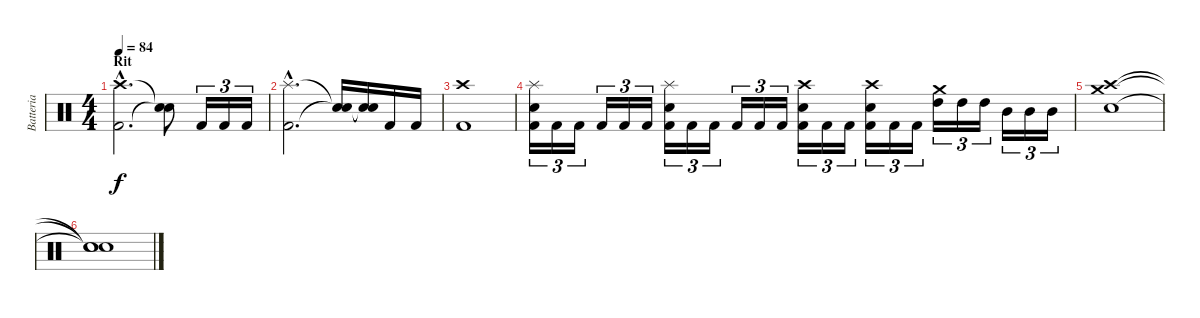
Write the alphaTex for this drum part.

\track ("Batteria" "Batteria") {instrument percussion}
\staff {score}
\articulation defaults
\ts (4 4)
\section ("" "Rit")
\tempo 84
\clef neutral
\ks c
("Crash high (hit)"{hac} "Kick (hit) 2"{hac}).2{d dy f} ("Snare (hit)"{t} "Snare (hit)"{t}).8 "Kick (hit) 2".16{tu (3 2)} "Kick (hit) 2".16{tu (3 2)} "Kick (hit) 2".16{tu (3 2)} |
("Splash (hit)"{hac} "Kick (hit) 2"{hac}).2{d} ("Snare (hit)"{t} "Snare (hit)"{t}).16 ("Snare (hit)"{t} "Snare (hit)"{t}).16 "Kick (hit) 2".16 "Kick (hit) 2".16 |
("Crash high (hit)" "Kick (hit) 2").1 |
("Splash (hit)" "Snare (hit) 2" "Kick (hit) 2").16{tu (3 2)} "Kick (hit) 2".16{tu (3 2)} "Kick (hit) 2".16{tu (3 2)} "Kick (hit) 2".16{tu (3 2)} "Kick (hit) 2".16{tu (3 2)} "Kick (hit) 2".16{tu (3 2)} ("Splash (hit)" "Snare (hit) 2" "Kick (hit) 2").16{tu (3 2)} "Kick (hit) 2".16{tu (3 2)} "Kick (hit) 2".16{tu (3 2)} "Kick (hit) 2".16{tu (3 2)} "Kick (hit) 2".16{tu (3 2)} "Kick (hit) 2".16{tu (3 2)} ("Crash high (hit)" "Snare (hit) 2" "Kick (hit) 2").16{tu (3 2)} "Kick (hit) 2".16{tu (3 2)} "Kick (hit) 2".16{tu (3 2)} ("Crash high (hit)" "Snare (hit) 2" "Kick (hit) 2").16{tu (3 2)} "Kick (hit) 2".16{tu (3 2)} "Kick (hit) 2".16{tu (3 2)} ("Crash medium (hit)" "High Tom (hit)").16{tu (3 2)} "High Tom (hit)".16{tu (3 2)} "High Tom (hit)".16{tu (3 2)} "Mid Tom (hit)".16{tu (3 2)} "Mid Tom (hit)".16{tu (3 2)} "Mid Tom (hit)".16{tu (3 2)} |
("Snare (hit) 2" "Crash medium (hit)" "Crash high (hit)").1 |
("Snare (hit)"{t} "Snare (hit)"{t} "Snare (hit)"{t}).1
